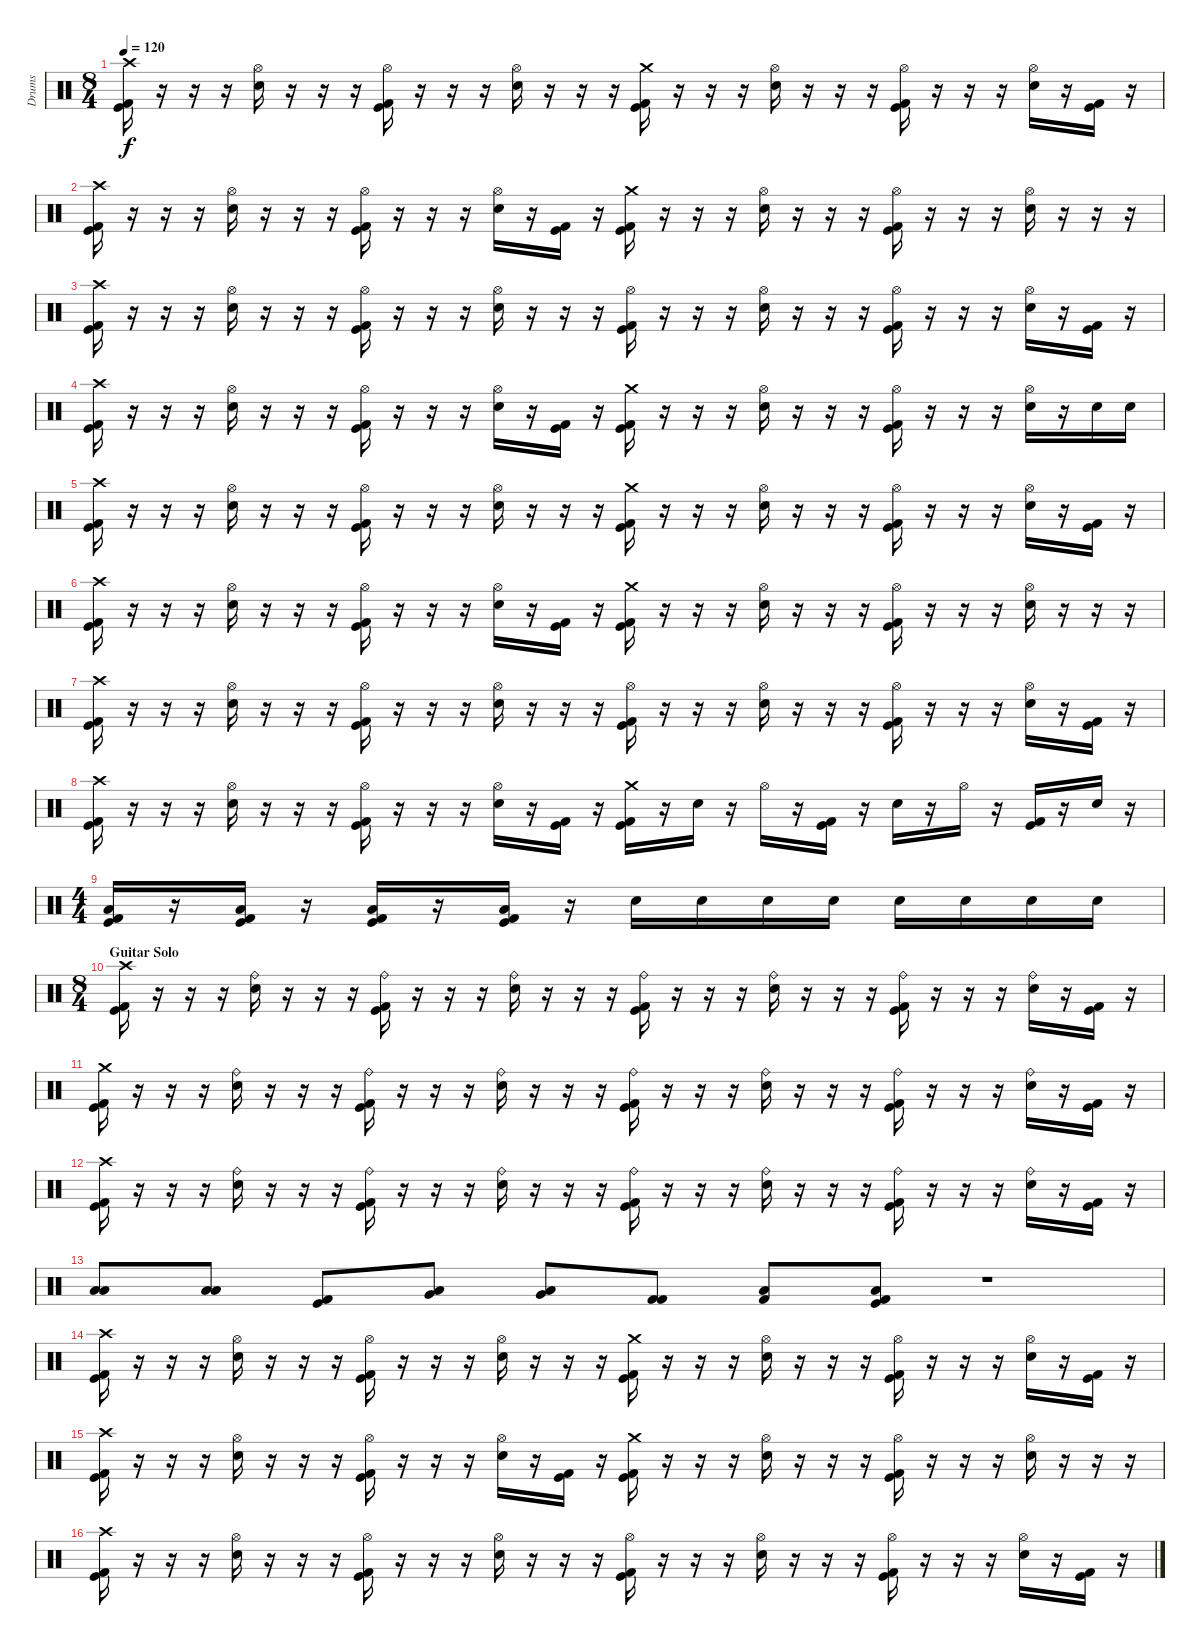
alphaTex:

\track ("Drums" "Drums") {instrument percussion}
\staff {score}
\articulation defaults
\ts (8 4)
\tempo 120
\clef neutral
\ks c
("Crash high (hit)" "Kick (hit) 2" "Kick (hit)").16{dy f} r.16 r.16 r.16 ("Hi-Hat (open)" "Electric Snare (hit)").16 r.16 r.16 r.16 ("Hi-Hat (open)" "Kick (hit) 2" "Kick (hit)").16 r.16 r.16 r.16 ("Hi-Hat (open)" "Electric Snare (hit)").16 r.16 r.16 r.16 ("Crash medium (hit)" "Kick (hit) 2" "Kick (hit)").16 r.16 r.16 r.16 ("Hi-Hat (open)" "Electric Snare (hit)").16 r.16 r.16 r.16 ("Hi-Hat (open)" "Kick (hit) 2" "Kick (hit)").16 r.16 r.16 r.16 ("Hi-Hat (open)" "Electric Snare (hit)").16 r.16 ("Kick (hit) 2" "Kick (hit)").16 r.16 |
("Crash high (hit)" "Kick (hit) 2" "Kick (hit)").16 r.16 r.16 r.16 ("Hi-Hat (open)" "Electric Snare (hit)").16 r.16 r.16 r.16 ("Hi-Hat (open)" "Kick (hit) 2" "Kick (hit)").16 r.16 r.16 r.16 ("Hi-Hat (open)" "Electric Snare (hit)").16 r.16 ("Kick (hit) 2" "Kick (hit)").16 r.16 ("Crash medium (hit)" "Kick (hit) 2" "Kick (hit)").16 r.16 r.16 r.16 ("Hi-Hat (open)" "Electric Snare (hit)").16 r.16 r.16 r.16 ("Hi-Hat (open)" "Kick (hit) 2" "Kick (hit)").16 r.16 r.16 r.16 ("Hi-Hat (open)" "Electric Snare (hit)").16 r.16 r.16 r.16 |
("Crash high (hit)" "Kick (hit) 2" "Kick (hit)").16 r.16 r.16 r.16 ("Hi-Hat (open)" "Electric Snare (hit)").16 r.16 r.16 r.16 ("Hi-Hat (open)" "Kick (hit) 2" "Kick (hit)").16 r.16 r.16 r.16 ("Hi-Hat (open)" "Electric Snare (hit)").16 r.16 r.16 r.16 ("Hi-Hat (open)" "Kick (hit) 2" "Kick (hit)").16 r.16 r.16 r.16 ("Hi-Hat (open)" "Electric Snare (hit)").16 r.16 r.16 r.16 ("Hi-Hat (open)" "Kick (hit) 2" "Kick (hit)").16 r.16 r.16 r.16 ("Hi-Hat (open)" "Electric Snare (hit)").16 r.16 ("Kick (hit) 2" "Kick (hit)").16 r.16 |
("Crash high (hit)" "Kick (hit) 2" "Kick (hit)").16 r.16 r.16 r.16 ("Hi-Hat (open)" "Electric Snare (hit)").16 r.16 r.16 r.16 ("Hi-Hat (open)" "Kick (hit) 2" "Kick (hit)").16 r.16 r.16 r.16 ("Hi-Hat (open)" "Electric Snare (hit)").16 r.16 ("Kick (hit) 2" "Kick (hit)").16 r.16 ("Crash medium (hit)" "Kick (hit) 2" "Kick (hit)").16 r.16 r.16 r.16 ("Hi-Hat (open)" "Electric Snare (hit)").16 r.16 r.16 r.16 ("Hi-Hat (open)" "Kick (hit) 2" "Kick (hit)").16 r.16 r.16 r.16 ("Hi-Hat (open)" "Electric Snare (hit)").16 r.16 "Electric Snare (hit)".16 "Electric Snare (hit)".16 |
("Crash high (hit)" "Kick (hit) 2" "Kick (hit)").16 r.16 r.16 r.16 ("Hi-Hat (open)" "Electric Snare (hit)").16 r.16 r.16 r.16 ("Hi-Hat (open)" "Kick (hit) 2" "Kick (hit)").16 r.16 r.16 r.16 ("Hi-Hat (open)" "Electric Snare (hit)").16 r.16 r.16 r.16 ("Crash medium (hit)" "Kick (hit) 2" "Kick (hit)").16 r.16 r.16 r.16 ("Hi-Hat (open)" "Electric Snare (hit)").16 r.16 r.16 r.16 ("Hi-Hat (open)" "Kick (hit) 2" "Kick (hit)").16 r.16 r.16 r.16 ("Hi-Hat (open)" "Electric Snare (hit)").16 r.16 ("Kick (hit) 2" "Kick (hit)").16 r.16 |
("Crash high (hit)" "Kick (hit) 2" "Kick (hit)").16 r.16 r.16 r.16 ("Hi-Hat (open)" "Electric Snare (hit)").16 r.16 r.16 r.16 ("Hi-Hat (open)" "Kick (hit) 2" "Kick (hit)").16 r.16 r.16 r.16 ("Hi-Hat (open)" "Electric Snare (hit)").16 r.16 ("Kick (hit) 2" "Kick (hit)").16 r.16 ("Crash medium (hit)" "Kick (hit) 2" "Kick (hit)").16 r.16 r.16 r.16 ("Hi-Hat (open)" "Electric Snare (hit)").16 r.16 r.16 r.16 ("Hi-Hat (open)" "Kick (hit) 2" "Kick (hit)").16 r.16 r.16 r.16 ("Hi-Hat (open)" "Electric Snare (hit)").16 r.16 r.16 r.16 |
("Crash high (hit)" "Kick (hit) 2" "Kick (hit)").16 r.16 r.16 r.16 ("Hi-Hat (open)" "Electric Snare (hit)").16 r.16 r.16 r.16 ("Hi-Hat (open)" "Kick (hit) 2" "Kick (hit)").16 r.16 r.16 r.16 ("Hi-Hat (open)" "Electric Snare (hit)").16 r.16 r.16 r.16 ("Hi-Hat (open)" "Kick (hit) 2" "Kick (hit)").16 r.16 r.16 r.16 ("Hi-Hat (open)" "Electric Snare (hit)").16 r.16 r.16 r.16 ("Hi-Hat (open)" "Kick (hit) 2" "Kick (hit)").16 r.16 r.16 r.16 ("Hi-Hat (open)" "Electric Snare (hit)").16 r.16 ("Kick (hit) 2" "Kick (hit)").16 r.16 |
("Crash high (hit)" "Kick (hit) 2" "Kick (hit)").16 r.16 r.16 r.16 ("Hi-Hat (open)" "Electric Snare (hit)").16 r.16 r.16 r.16 ("Hi-Hat (open)" "Kick (hit) 2" "Kick (hit)").16 r.16 r.16 r.16 ("Hi-Hat (open)" "Electric Snare (hit)").16 r.16 ("Kick (hit) 2" "Kick (hit)").16 r.16 ("Crash medium (hit)" "Kick (hit) 2" "Kick (hit)").16 r.16 "Electric Snare (hit)".16 r.16 "Hi-Hat (open)".16 r.16 ("Kick (hit) 2" "Kick (hit)").16 r.16 "Electric Snare (hit)".16 r.16 "Hi-Hat (open)".16 r.16 ("Kick (hit) 2" "Kick (hit)").16 r.16 "Electric Snare (hit)".16 r.16 |
\ts (4 4)
("Low Tom (hit)" "Kick (hit) 2" "Kick (hit)").16 r.16 ("Low Tom (hit)" "Kick (hit) 2" "Kick (hit)").16 r.16 ("Low Tom (hit)" "Kick (hit) 2" "Kick (hit)").16 r.16 ("Low Tom (hit)" "Kick (hit) 2" "Kick (hit)").16 r.16 "Electric Snare (hit)".16 "Electric Snare (hit)".16 "Electric Snare (hit)".16 "Electric Snare (hit)".16 "Electric Snare (hit)".16 "Electric Snare (hit)".16 "Electric Snare (hit)".16 "Electric Snare (hit)".16 |
\ts (8 4)
\section ("" "Guitar Solo")
("Crash high (hit)" "Kick (hit) 2" "Kick (hit)").16 r.16 r.16 r.16 ("Ride (bell)" "Electric Snare (hit)").16 r.16 r.16 r.16 ("Ride (bell)" "Kick (hit) 2" "Kick (hit)").16 r.16 r.16 r.16 ("Ride (bell)" "Electric Snare (hit)").16 r.16 r.16 r.16 ("Ride (bell)" "Kick (hit) 2" "Kick (hit)").16 r.16 r.16 r.16 ("Ride (bell)" "Electric Snare (hit)").16 r.16 r.16 r.16 ("Ride (bell)" "Kick (hit) 2" "Kick (hit)").16 r.16 r.16 r.16 ("Ride (bell)" "Electric Snare (hit)").16 r.16 ("Kick (hit) 2" "Kick (hit)").16 r.16 |
("Crash medium (hit)" "Kick (hit) 2" "Kick (hit)").16 r.16 r.16 r.16 ("Ride (bell)" "Electric Snare (hit)").16 r.16 r.16 r.16 ("Ride (bell)" "Kick (hit) 2" "Kick (hit)").16 r.16 r.16 r.16 ("Ride (bell)" "Electric Snare (hit)").16 r.16 r.16 r.16 ("Ride (bell)" "Kick (hit) 2" "Kick (hit)").16 r.16 r.16 r.16 ("Ride (bell)" "Electric Snare (hit)").16 r.16 r.16 r.16 ("Ride (bell)" "Kick (hit) 2" "Kick (hit)").16 r.16 r.16 r.16 ("Ride (bell)" "Electric Snare (hit)").16 r.16 ("Kick (hit) 2" "Kick (hit)").16 r.16 |
("Crash high (hit)" "Kick (hit) 2" "Kick (hit)").16 r.16 r.16 r.16 ("Ride (bell)" "Electric Snare (hit)").16 r.16 r.16 r.16 ("Ride (bell)" "Kick (hit) 2" "Kick (hit)").16 r.16 r.16 r.16 ("Ride (bell)" "Electric Snare (hit)").16 r.16 r.16 r.16 ("Ride (bell)" "Kick (hit) 2" "Kick (hit)").16 r.16 r.16 r.16 ("Ride (bell)" "Electric Snare (hit)").16 r.16 r.16 r.16 ("Ride (bell)" "Kick (hit) 2" "Kick (hit)").16 r.16 r.16 r.16 ("Ride (bell)" "Electric Snare (hit)").16 r.16 ("Kick (hit) 2" "Kick (hit)").16 r.16 |
("Low Tom (hit)" "Low Floor Tom (hit)").8 ("Low Tom (hit)" "Low Floor Tom (hit)").8 ("Kick (hit) 2" "Kick (hit)").8 ("Very Low Tom (hit)" "Low Floor Tom (hit)").8 ("Very Low Tom (hit)" "Low Floor Tom (hit)").8 ("Kick (hit) 2" "Kick (hit) 2").8 ("Low Floor Tom (hit)" "Kick (hit) 2").8 ("Kick (hit) 2" "Low Floor Tom (hit)" "Kick (hit)").8 r.1 |
("Crash high (hit)" "Kick (hit) 2" "Kick (hit)").16 r.16 r.16 r.16 ("Hi-Hat (open)" "Electric Snare (hit)").16 r.16 r.16 r.16 ("Hi-Hat (open)" "Kick (hit) 2" "Kick (hit)").16 r.16 r.16 r.16 ("Hi-Hat (open)" "Electric Snare (hit)").16 r.16 r.16 r.16 ("Crash medium (hit)" "Kick (hit) 2" "Kick (hit)").16 r.16 r.16 r.16 ("Hi-Hat (open)" "Electric Snare (hit)").16 r.16 r.16 r.16 ("Hi-Hat (open)" "Kick (hit) 2" "Kick (hit)").16 r.16 r.16 r.16 ("Hi-Hat (open)" "Electric Snare (hit)").16 r.16 ("Kick (hit) 2" "Kick (hit)").16 r.16 |
("Crash high (hit)" "Kick (hit) 2" "Kick (hit)").16 r.16 r.16 r.16 ("Hi-Hat (open)" "Electric Snare (hit)").16 r.16 r.16 r.16 ("Hi-Hat (open)" "Kick (hit) 2" "Kick (hit)").16 r.16 r.16 r.16 ("Hi-Hat (open)" "Electric Snare (hit)").16 r.16 ("Kick (hit) 2" "Kick (hit)").16 r.16 ("Crash medium (hit)" "Kick (hit) 2" "Kick (hit)").16 r.16 r.16 r.16 ("Hi-Hat (open)" "Electric Snare (hit)").16 r.16 r.16 r.16 ("Hi-Hat (open)" "Kick (hit) 2" "Kick (hit)").16 r.16 r.16 r.16 ("Hi-Hat (open)" "Electric Snare (hit)").16 r.16 r.16 r.16 |
("Crash high (hit)" "Kick (hit) 2" "Kick (hit)").16 r.16 r.16 r.16 ("Hi-Hat (open)" "Electric Snare (hit)").16 r.16 r.16 r.16 ("Hi-Hat (open)" "Kick (hit) 2" "Kick (hit)").16 r.16 r.16 r.16 ("Hi-Hat (open)" "Electric Snare (hit)").16 r.16 r.16 r.16 ("Hi-Hat (open)" "Kick (hit) 2" "Kick (hit)").16 r.16 r.16 r.16 ("Hi-Hat (open)" "Electric Snare (hit)").16 r.16 r.16 r.16 ("Hi-Hat (open)" "Kick (hit) 2" "Kick (hit)").16 r.16 r.16 r.16 ("Hi-Hat (open)" "Electric Snare (hit)").16 r.16 ("Kick (hit) 2" "Kick (hit)").16 r.16
